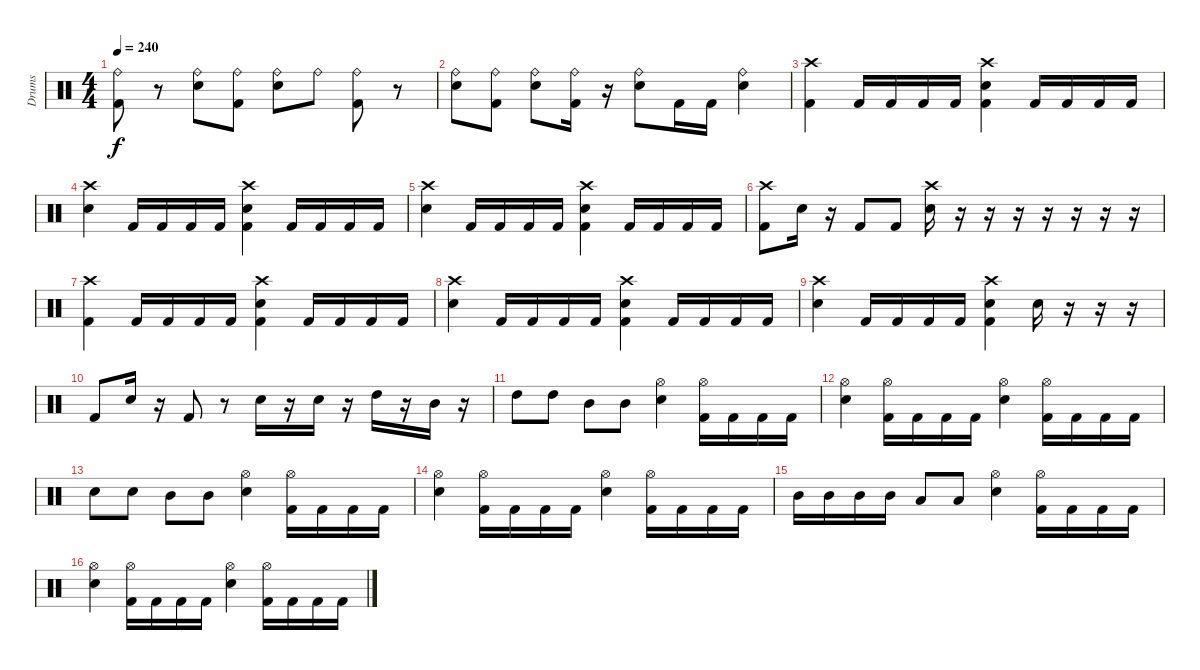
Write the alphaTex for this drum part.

\track ("Drums" "Drums") {instrument percussion}
\staff {score}
\articulation defaults
\ts (4 4)
\tempo 240
\clef neutral
\ks c
("Ride (bell)" "Kick (hit) 2").8{dy f} r.8 ("Ride (bell)" "Snare (hit) 2").8 ("Ride (bell)" "Kick (hit) 2").8 ("Ride (bell)" "Snare (hit) 2").8 "Ride (bell)".8 ("Ride (bell)" "Kick (hit) 2").8 r.8 |
("Ride (bell)" "Snare (hit) 2").8 ("Ride (bell)" "Kick (hit) 2").8 ("Ride (bell)" "Snare (hit) 2").8 ("Ride (bell)" "Kick (hit) 2").16 r.16 ("Ride (bell)" "Snare (hit) 2").8 "Kick (hit) 2".16 "Kick (hit) 2".16 ("Ride (bell)" "Snare (hit) 2").4 |
("Crash high (hit)" "Kick (hit) 2").4 "Kick (hit) 2".16 "Kick (hit) 2".16 "Kick (hit) 2".16 "Kick (hit) 2".16 ("Crash high (hit)" "Snare (hit) 2" "Kick (hit) 2").4 "Kick (hit) 2".16 "Kick (hit) 2".16 "Kick (hit) 2".16 "Kick (hit) 2".16 |
("Crash high (hit)" "Snare (hit) 2").4 "Kick (hit) 2".16 "Kick (hit) 2".16 "Kick (hit) 2".16 "Kick (hit) 2".16 ("Crash high (hit)" "Snare (hit) 2" "Kick (hit) 2").4 "Kick (hit) 2".16 "Kick (hit) 2".16 "Kick (hit) 2".16 "Kick (hit) 2".16 |
("Crash high (hit)" "Snare (hit) 2").4 "Kick (hit) 2".16 "Kick (hit) 2".16 "Kick (hit) 2".16 "Kick (hit) 2".16 ("Crash high (hit)" "Snare (hit) 2" "Kick (hit) 2").4 "Kick (hit) 2".16 "Kick (hit) 2".16 "Kick (hit) 2".16 "Kick (hit) 2".16 |
("Crash high (hit)" "Kick (hit) 2").8 "Snare (hit) 2".16 r.16 "Kick (hit) 2".8 "Kick (hit) 2".8 ("Crash high (hit)" "Snare (hit) 2").16 r.16 r.16 r.16 r.16 r.16 r.16 r.16 |
("Crash high (hit)" "Kick (hit) 2").4 "Kick (hit) 2".16 "Kick (hit) 2".16 "Kick (hit) 2".16 "Kick (hit) 2".16 ("Crash high (hit)" "Snare (hit) 2" "Kick (hit) 2").4 "Kick (hit) 2".16 "Kick (hit) 2".16 "Kick (hit) 2".16 "Kick (hit) 2".16 |
("Crash high (hit)" "Snare (hit) 2").4 "Kick (hit) 2".16 "Kick (hit) 2".16 "Kick (hit) 2".16 "Kick (hit) 2".16 ("Crash high (hit)" "Snare (hit) 2" "Kick (hit) 2").4 "Kick (hit) 2".16 "Kick (hit) 2".16 "Kick (hit) 2".16 "Kick (hit) 2".16 |
("Crash high (hit)" "Snare (hit) 2").4 "Kick (hit) 2".16 "Kick (hit) 2".16 "Kick (hit) 2".16 "Kick (hit) 2".16 ("Crash high (hit)" "Snare (hit) 2" "Kick (hit) 2").4 "Snare (hit) 2".16 r.16 r.16 r.16 |
"Kick (hit) 2".8 "Snare (hit) 2".16 r.16 "Kick (hit) 2".8 r.8 "Snare (hit) 2".16 r.16 "Snare (hit) 2".16 r.16 "High Tom (hit)".16 r.16 "Mid Tom (hit)".16 r.16 |
"High Tom (hit)".8 "High Tom (hit)".8 "Mid Tom (hit)".8 "Mid Tom (hit)".8 ("Hi-Hat (open)" "Snare (hit) 2").4 ("Hi-Hat (open)" "Kick (hit) 2").16 "Kick (hit) 2".16 "Kick (hit) 2".16 "Kick (hit) 2".16 |
("Hi-Hat (open)" "Snare (hit) 2").4 ("Hi-Hat (open)" "Kick (hit) 2").16 "Kick (hit) 2".16 "Kick (hit) 2".16 "Kick (hit) 2".16 ("Hi-Hat (open)" "Snare (hit) 2").4 ("Hi-Hat (open)" "Kick (hit) 2").16 "Kick (hit) 2".16 "Kick (hit) 2".16 "Kick (hit) 2".16 |
"Snare (hit) 2".8 "Snare (hit) 2".8 "Mid Tom (hit)".8 "Mid Tom (hit)".8 ("Hi-Hat (open)" "Snare (hit) 2").4 ("Hi-Hat (open)" "Kick (hit) 2").16 "Kick (hit) 2".16 "Kick (hit) 2".16 "Kick (hit) 2".16 |
("Hi-Hat (open)" "Snare (hit) 2").4 ("Hi-Hat (open)" "Kick (hit) 2").16 "Kick (hit) 2".16 "Kick (hit) 2".16 "Kick (hit) 2".16 ("Hi-Hat (open)" "Snare (hit) 2").4 ("Hi-Hat (open)" "Kick (hit) 2").16 "Kick (hit) 2".16 "Kick (hit) 2".16 "Kick (hit) 2".16 |
"Mid Tom (hit)".16 "Mid Tom (hit)".16 "Mid Tom (hit)".16 "Mid Tom (hit)".16 "Low Tom (hit)".8 "Low Tom (hit)".8 ("Hi-Hat (open)" "Snare (hit) 2").4 ("Hi-Hat (open)" "Kick (hit) 2").16 "Kick (hit) 2".16 "Kick (hit) 2".16 "Kick (hit) 2".16 |
("Hi-Hat (open)" "Snare (hit) 2").4 ("Hi-Hat (open)" "Kick (hit) 2").16 "Kick (hit) 2".16 "Kick (hit) 2".16 "Kick (hit) 2".16 ("Hi-Hat (open)" "Snare (hit) 2").4 ("Hi-Hat (open)" "Kick (hit) 2").16 "Kick (hit) 2".16 "Kick (hit) 2".16 "Kick (hit) 2".16
